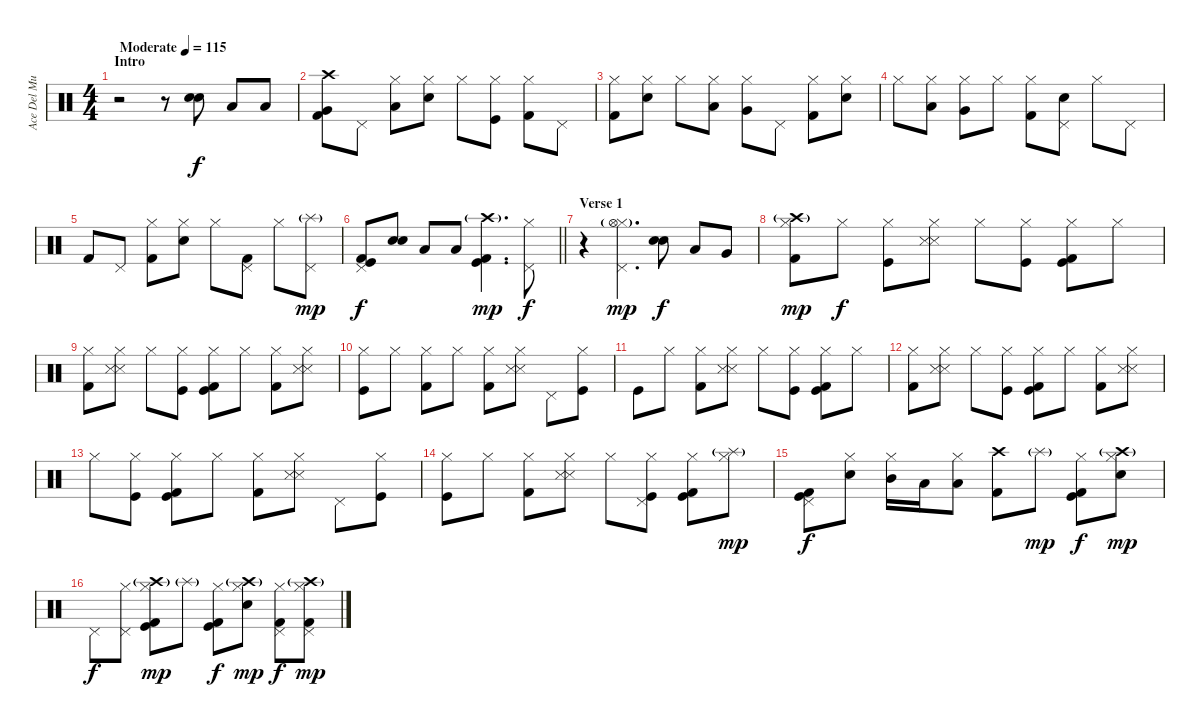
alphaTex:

\track ("Ace Del Mundo(Drums)" "Ace Del Mu") {instrument percussion}
\staff {score}
\articulation defaults
\ts (4 4)
\section ("" "Intro")
\tempo (115 "Moderate")
\clef neutral
\ks c
r.2{dy f} r.8 ("Snare (hit) 2" "Electric Snare (hit)").8{bd 240} "Low Tom (hit)".8 "Low Tom (hit)".8 |
("Crash high (hit)" "Kick (hit) 2" "Very Low Tom (hit)").8 "Pedal Hi-Hat (hit)".8 ("Hi-Hat (closed)" "Low Floor Tom (hit)").8 ("Hi-Hat (closed)" "Electric Snare (hit)").8 "Hi-Hat (closed)".8 ("Hi-Hat (closed)" "Kick (hit)").8 ("Hi-Hat (closed)" "Kick (hit) 2").8 "Pedal Hi-Hat (hit)".8 |
("Hi-Hat (closed)" "Kick (hit) 2").8 ("Hi-Hat (closed)" "Electric Snare (hit)").8 "Hi-Hat (closed)".8 ("Hi-Hat (closed)" "Low Floor Tom (hit)").8 ("Hi-Hat (closed)" "Very Low Tom (hit)").8 "Pedal Hi-Hat (hit)".8 ("Hi-Hat (closed)" "Kick (hit) 2").8 ("Hi-Hat (closed)" "Electric Snare (hit)").8 |
"Hi-Hat (closed)".8 ("Hi-Hat (closed)" "Low Floor Tom (hit)").8 ("Hi-Hat (closed)" "Very Low Tom (hit)").8 "Hi-Hat (closed)".8 ("Hi-Hat (closed)" "Kick (hit) 2").8 ("Pedal Hi-Hat (hit)" "Electric Snare (hit)").8 "Hi-Hat (closed)".8 "Pedal Hi-Hat (hit)".8 |
"Kick (hit) 2".8 "Pedal Hi-Hat (hit)".8 ("Hi-Hat (closed)" "Kick (hit) 2").8 ("Hi-Hat (closed)" "Electric Snare (hit)").8 "Hi-Hat (closed)".8 ("Pedal Hi-Hat (hit)" "Kick (hit) 2").8 "Hi-Hat (closed)".8 ("Pedal Hi-Hat (hit)" "Splash (hit)"{g}).8{dy mp} |
\barLineRight lightlight
("Pedal Hi-Hat (hit)" "Kick (hit) 2" "Kick (hit)").8{dy f} ("Electric Snare (hit)" "Snare (hit) 2").8{bd 120} "Low Tom (hit)".8 "Low Tom (hit)".8 ("Crash high (hit)"{g} "Kick (hit) 2" "Kick (hit)").4{d dy mp} ("Pedal Hi-Hat (hit)" "Hi-Hat (closed)").8{dy f} |
\section ("" "Verse 1")
r.4 ("Pedal Hi-Hat (hit)" "Hi-Hat (closed)" "Hi-Hat (open)"{g}).4{d dy mp} ("Snare (hit) 2" "Electric Snare (hit)").8{bd 60 dy f} "Low Tom (hit)".8 "Very Low Tom (hit)".8 |
("Crash high (hit)"{g} "Hi-Hat (closed)" "Kick (hit) 2").8{dy mp} "Hi-Hat (closed)".8{dy f} ("Hi-Hat (closed)" "Kick (hit)").8 ("Hi-Hat (closed)" "Snare (side stick) 3" "Snare (side stick) 3").8 "Hi-Hat (closed)".8 ("Hi-Hat (closed)" "Kick (hit)").8 ("Hi-Hat (closed)" "Kick (hit) 2" "Kick (hit)").8 "Hi-Hat (closed)".8 |
("Hi-Hat (closed)" "Kick (hit) 2").8 ("Hi-Hat (closed)" "Snare (side stick) 3" "Snare (side stick) 3").8 "Hi-Hat (closed)".8 ("Hi-Hat (closed)" "Kick (hit)").8 ("Hi-Hat (closed)" "Kick (hit) 2" "Kick (hit)").8 "Hi-Hat (closed)".8 ("Hi-Hat (closed)" "Kick (hit) 2").8 ("Hi-Hat (closed)" "Snare (side stick) 3" "Snare (side stick) 3").8 |
("Hi-Hat (closed)" "Kick (hit)").8 "Hi-Hat (closed)".8 ("Hi-Hat (closed)" "Kick (hit) 2").8 "Hi-Hat (closed)".8 ("Hi-Hat (closed)" "Kick (hit) 2").8 ("Hi-Hat (closed)" "Snare (side stick) 3" "Snare (side stick) 3").8 "Pedal Hi-Hat (hit)".8 ("Hi-Hat (closed)" "Kick (hit)").8 |
"Kick (hit)".8 "Hi-Hat (closed)".8 ("Hi-Hat (closed)" "Kick (hit) 2").8 ("Hi-Hat (closed)" "Snare (side stick) 3" "Snare (side stick) 3").8 "Hi-Hat (closed)".8 ("Hi-Hat (closed)" "Kick (hit)").8 ("Hi-Hat (closed)" "Kick (hit) 2" "Kick (hit)").8 "Hi-Hat (closed)".8 |
("Hi-Hat (closed)" "Kick (hit) 2").8 ("Hi-Hat (closed)" "Snare (side stick) 3" "Snare (side stick) 3").8 "Hi-Hat (closed)".8 ("Hi-Hat (closed)" "Kick (hit)").8 ("Hi-Hat (closed)" "Kick (hit) 2" "Kick (hit)").8 "Hi-Hat (closed)".8 ("Hi-Hat (closed)" "Kick (hit) 2").8 ("Hi-Hat (closed)" "Snare (side stick) 3" "Snare (side stick) 3").8 |
"Hi-Hat (closed)".8 ("Hi-Hat (closed)" "Kick (hit)").8 ("Hi-Hat (closed)" "Kick (hit) 2" "Kick (hit)").8 "Hi-Hat (closed)".8 ("Hi-Hat (closed)" "Kick (hit) 2").8 ("Hi-Hat (closed)" "Snare (side stick) 3" "Snare (side stick) 3").8 "Pedal Hi-Hat (hit)".8 ("Hi-Hat (closed)" "Kick (hit)").8 |
("Hi-Hat (closed)" "Kick (hit)").8 "Hi-Hat (closed)".8 ("Hi-Hat (closed)" "Kick (hit) 2").8 ("Hi-Hat (closed)" "Snare (side stick) 3" "Snare (side stick) 3").8 "Hi-Hat (closed)".8 ("Hi-Hat (closed)" "Pedal Hi-Hat (hit)" "Kick (hit)").8 ("Hi-Hat (closed)" "Kick (hit) 2" "Kick (hit)").8 ("Hi-Hat (closed)" "Splash (hit)"{g}).8{dy mp} |
("Pedal Hi-Hat (hit)" "Kick (hit) 2" "Kick (hit)").8{dy f} ("Hi-Hat (closed)" "Electric Snare (hit)").8 ("Hi-Hat (closed)" "Mid Tom (hit)").16 "Low Tom (hit)".16 ("Hi-Hat (closed)" "Low Tom (hit)").8 ("Crash high (hit)" "Kick (hit) 2").8 "Splash (hit)"{g}.8{dy mp} ("Hi-Hat (closed)" "Kick (hit) 2" "Kick (hit)").8{dy f} ("Hi-Hat (closed)" "Electric Snare (hit)" "Crash high (hit)"{g}).8{dy mp} |
"Pedal Hi-Hat (hit)".8{dy f} ("Pedal Hi-Hat (hit)" "Hi-Hat (closed)").8 ("Hi-Hat (closed)" "Kick (hit) 2" "Kick (hit)" "Crash high (hit)"{g}).8{dy mp} "Splash (hit)"{g}.8 ("Hi-Hat (closed)" "Kick (hit) 2" "Kick (hit)").8{dy f} ("Hi-Hat (closed)" "Electric Snare (hit)" "Crash high (hit)"{g}).8{dy mp} ("Pedal Hi-Hat (hit)" "Hi-Hat (closed)" "Kick (hit) 2").8{dy f} ("Pedal Hi-Hat (hit)" "Hi-Hat (closed)" "Kick (hit) 2" "Crash high (hit)"{g}).8{dy mp}
